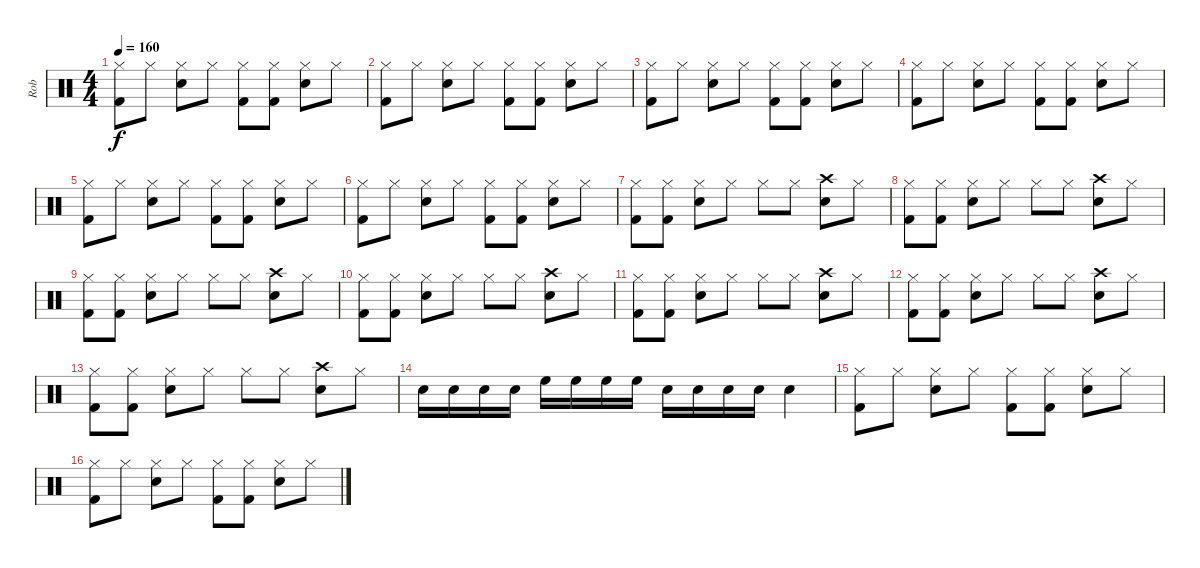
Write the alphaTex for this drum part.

\track ("Rob" "Rob") {instrument percussion}
\staff {score}
\articulation defaults
\ts (4 4)
\tempo 160
\clef neutral
\ks c
("Hi-Hat (closed)" "Kick (hit) 2").8{dy f} "Hi-Hat (closed)".8 ("Hi-Hat (closed)" "Electric Snare (hit)").8 "Hi-Hat (closed)".8 ("Hi-Hat (closed)" "Kick (hit) 2").8 ("Hi-Hat (closed)" "Kick (hit) 2").8 ("Hi-Hat (closed)" "Electric Snare (hit)").8 "Hi-Hat (closed)".8 |
("Hi-Hat (closed)" "Kick (hit) 2").8 "Hi-Hat (closed)".8 ("Hi-Hat (closed)" "Electric Snare (hit)").8 "Hi-Hat (closed)".8 ("Hi-Hat (closed)" "Kick (hit) 2").8 ("Hi-Hat (closed)" "Kick (hit) 2").8 ("Hi-Hat (closed)" "Electric Snare (hit)").8 "Hi-Hat (closed)".8 |
("Hi-Hat (closed)" "Kick (hit) 2").8 "Hi-Hat (closed)".8 ("Hi-Hat (closed)" "Electric Snare (hit)").8 "Hi-Hat (closed)".8 ("Hi-Hat (closed)" "Kick (hit) 2").8 ("Hi-Hat (closed)" "Kick (hit) 2").8 ("Hi-Hat (closed)" "Electric Snare (hit)").8 "Hi-Hat (closed)".8 |
("Hi-Hat (closed)" "Kick (hit) 2").8 "Hi-Hat (closed)".8 ("Hi-Hat (closed)" "Electric Snare (hit)").8 "Hi-Hat (closed)".8 ("Hi-Hat (closed)" "Kick (hit) 2").8 ("Hi-Hat (closed)" "Kick (hit) 2").8 ("Hi-Hat (closed)" "Electric Snare (hit)").8 "Hi-Hat (closed)".8 |
("Hi-Hat (closed)" "Kick (hit) 2").8 "Hi-Hat (closed)".8 ("Hi-Hat (closed)" "Electric Snare (hit)").8 "Hi-Hat (closed)".8 ("Hi-Hat (closed)" "Kick (hit) 2").8 ("Hi-Hat (closed)" "Kick (hit) 2").8 ("Hi-Hat (closed)" "Electric Snare (hit)").8 "Hi-Hat (closed)".8 |
("Hi-Hat (closed)" "Kick (hit) 2").8 "Hi-Hat (closed)".8 ("Hi-Hat (closed)" "Electric Snare (hit)").8 "Hi-Hat (closed)".8 ("Hi-Hat (closed)" "Kick (hit) 2").8 ("Hi-Hat (closed)" "Kick (hit) 2").8 ("Hi-Hat (closed)" "Electric Snare (hit)").8 "Hi-Hat (closed)".8 |
("Hi-Hat (closed)" "Kick (hit) 2").8 ("Hi-Hat (closed)" "Kick (hit) 2").8 ("Hi-Hat (closed)" "Electric Snare (hit)").8 "Hi-Hat (closed)".8 "Hi-Hat (closed)".8 "Hi-Hat (closed)".8 ("Crash high (hit)" "Electric Snare (hit)").8 "Hi-Hat (closed)".8 |
("Hi-Hat (closed)" "Kick (hit) 2").8 ("Hi-Hat (closed)" "Kick (hit) 2").8 ("Hi-Hat (closed)" "Electric Snare (hit)").8 "Hi-Hat (closed)".8 "Hi-Hat (closed)".8 "Hi-Hat (closed)".8 ("Crash high (hit)" "Electric Snare (hit)").8 "Hi-Hat (closed)".8 |
("Hi-Hat (closed)" "Kick (hit) 2").8 ("Hi-Hat (closed)" "Kick (hit) 2").8 ("Hi-Hat (closed)" "Electric Snare (hit)").8 "Hi-Hat (closed)".8 "Hi-Hat (closed)".8 "Hi-Hat (closed)".8 ("Crash high (hit)" "Electric Snare (hit)").8 "Hi-Hat (closed)".8 |
("Hi-Hat (closed)" "Kick (hit) 2").8 ("Hi-Hat (closed)" "Kick (hit) 2").8 ("Hi-Hat (closed)" "Electric Snare (hit)").8 "Hi-Hat (closed)".8 "Hi-Hat (closed)".8 "Hi-Hat (closed)".8 ("Crash high (hit)" "Electric Snare (hit)").8 "Hi-Hat (closed)".8 |
("Hi-Hat (closed)" "Kick (hit) 2").8 ("Hi-Hat (closed)" "Kick (hit) 2").8 ("Hi-Hat (closed)" "Electric Snare (hit)").8 "Hi-Hat (closed)".8 "Hi-Hat (closed)".8 "Hi-Hat (closed)".8 ("Crash high (hit)" "Electric Snare (hit)").8 "Hi-Hat (closed)".8 |
("Hi-Hat (closed)" "Kick (hit) 2").8 ("Hi-Hat (closed)" "Kick (hit) 2").8 ("Hi-Hat (closed)" "Electric Snare (hit)").8 "Hi-Hat (closed)".8 "Hi-Hat (closed)".8 "Hi-Hat (closed)".8 ("Crash high (hit)" "Electric Snare (hit)").8 "Hi-Hat (closed)".8 |
("Hi-Hat (closed)" "Kick (hit) 2").8 ("Hi-Hat (closed)" "Kick (hit) 2").8 ("Hi-Hat (closed)" "Electric Snare (hit)").8 "Hi-Hat (closed)".8 "Hi-Hat (closed)".8 "Hi-Hat (closed)".8 ("Crash high (hit)" "Electric Snare (hit)").8 "Hi-Hat (closed)".8 |
"Electric Snare (hit)".16 "Electric Snare (hit)".16 "Electric Snare (hit)".16 "Electric Snare (hit)".16 "High Floor Tom (hit)".16 "High Floor Tom (hit)".16 "High Floor Tom (hit)".16 "High Floor Tom (hit)".16 "Electric Snare (hit)".16 "Electric Snare (hit)".16 "Electric Snare (hit)".16 "Electric Snare (hit)".16 "Electric Snare (hit)".4 |
("Hi-Hat (closed)" "Kick (hit) 2").8 "Hi-Hat (closed)".8 ("Hi-Hat (closed)" "Electric Snare (hit)").8 "Hi-Hat (closed)".8 ("Hi-Hat (closed)" "Kick (hit) 2").8 ("Hi-Hat (closed)" "Kick (hit) 2").8 ("Hi-Hat (closed)" "Electric Snare (hit)").8 "Hi-Hat (closed)".8 |
("Hi-Hat (closed)" "Kick (hit) 2").8 "Hi-Hat (closed)".8 ("Hi-Hat (closed)" "Electric Snare (hit)").8 "Hi-Hat (closed)".8 ("Hi-Hat (closed)" "Kick (hit) 2").8 ("Hi-Hat (closed)" "Kick (hit) 2").8 ("Hi-Hat (closed)" "Electric Snare (hit)").8 "Hi-Hat (closed)".8
